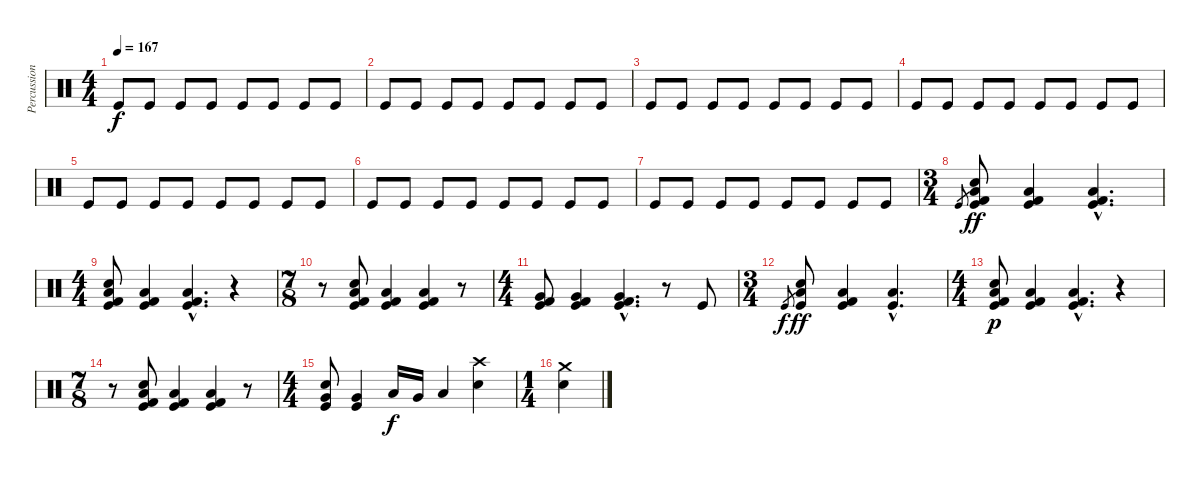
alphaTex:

\track ("Percussions" "Percussion") {instrument percussion}
\staff {score}
\articulation defaults
\ts (4 4)
\tempo 167
\clef neutral
\ks c "Kick (hit)".8{dy f volume 6} "Kick (hit)".8 "Kick (hit)".8 "Kick (hit)".8 "Kick (hit)".8 "Kick (hit)".8 "Kick (hit)".8 "Kick (hit)".8
|
"Kick (hit)".8 "Kick (hit)".8 "Kick (hit)".8 "Kick (hit)".8 "Kick (hit)".8 "Kick (hit)".8 "Kick (hit)".8 "Kick (hit)".8 |
"Kick (hit)".8{volume 15} "Kick (hit)".8 "Kick (hit)".8 "Kick (hit)".8 "Kick (hit)".8 "Kick (hit)".8 "Kick (hit)".8 "Kick (hit)".8 |
"Kick (hit)".8 "Kick (hit)".8 "Kick (hit)".8 "Kick (hit)".8 "Kick (hit)".8 "Kick (hit)".8 "Kick (hit)".8 "Kick (hit)".8 |
"Kick (hit)".8 "Kick (hit)".8 "Kick (hit)".8 "Kick (hit)".8 "Kick (hit)".8 "Kick (hit)".8 "Kick (hit)".8 "Kick (hit)".8 |
"Kick (hit)".8 "Kick (hit)".8 "Kick (hit)".8 "Kick (hit)".8 "Kick (hit)".8 "Kick (hit)".8 "Kick (hit)".8 "Kick (hit)".8 |
"Kick (hit)".8 "Kick (hit)".8 "Kick (hit)".8 "Kick (hit)".8 "Kick (hit)".8 "Kick (hit)".8 "Kick (hit)".8 "Kick (hit)".8 |
\ts (3 4)
"Kick (hit)".8{gr} ("Low Floor Tom (hit)" "Electric Snare (hit)" "Kick (hit) 2" "Kick (hit)").8{dy ff volume 13} ("Low Floor Tom (hit)" "Kick (hit) 2" "Kick (hit)").4 ("Low Floor Tom (hit)"{hac} "Kick (hit) 2"{hac} "Kick (hit)"{hac}).4{d} |
\ts (4 4)
("Low Floor Tom (hit)" "Electric Snare (hit)" "Kick (hit) 2" "Kick (hit)").8{volume 13} ("Low Floor Tom (hit)" "Kick (hit) 2" "Kick (hit)").4 ("Low Floor Tom (hit)"{hac} "Kick (hit) 2"{hac} "Kick (hit)"{hac}).4{d} r.4 |
\ts (7 8)
r.8 ("Low Floor Tom (hit)" "Electric Snare (hit)" "Kick (hit) 2" "Kick (hit)").8{volume 13} ("Low Floor Tom (hit)" "Kick (hit) 2" "Kick (hit)").4 ("Low Floor Tom (hit)" "Kick (hit) 2" "Kick (hit)").4 r.8 |
\ts (4 4)
("Very Low Tom (hit)" "Kick (hit) 2" "Kick (hit)").8{volume 13} ("Very Low Tom (hit)" "Kick (hit) 2" "Kick (hit)").4 ("Very Low Tom (hit)"{hac} "Kick (hit) 2"{hac} "Kick (hit)"{hac}).4{d} r.8 "Kick (hit)".8 |
\ts (3 4)
"Kick (hit)".8{gr dy f} ("Low Floor Tom (hit)" "Electric Snare (hit)" "Kick (hit)").8{dy ff volume 13} ("Low Floor Tom (hit)" "Kick (hit) 2" "Kick (hit)").4 ("Low Floor Tom (hit)"{hac} "Kick (hit)"{hac}).4{d} |
\ts (4 4)
("Low Floor Tom (hit)" "Electric Snare (hit)" "Kick (hit) 2" "Kick (hit)").8{dy p volume 13} ("Low Floor Tom (hit)" "Kick (hit) 2" "Kick (hit)").4 ("Low Floor Tom (hit)"{hac} "Kick (hit) 2"{hac} "Kick (hit)"{hac}).4{d} r.4 |
\ts (7 8)
r.8 ("Low Floor Tom (hit)" "Electric Snare (hit)" "Kick (hit) 2" "Kick (hit)").8{volume 13} ("Low Floor Tom (hit)" "Kick (hit) 2" "Kick (hit)").4 ("Low Floor Tom (hit)" "Kick (hit) 2" "Kick (hit)").4 r.8 |
\ts (4 4)
("Very Low Tom (hit)" "Electric Snare (hit)" "Kick (hit)").8 ("Very Low Tom (hit)" "Kick (hit)").4 "Low Tom (hit)".16{dy f} "Very Low Tom (hit)".16 "Low Floor Tom (hit)".4 ("Crash high (hit)" "Electric Snare (hit)").4 |
\ts (1 4)
("Crash medium (hit)" "Electric Snare (hit)").4
